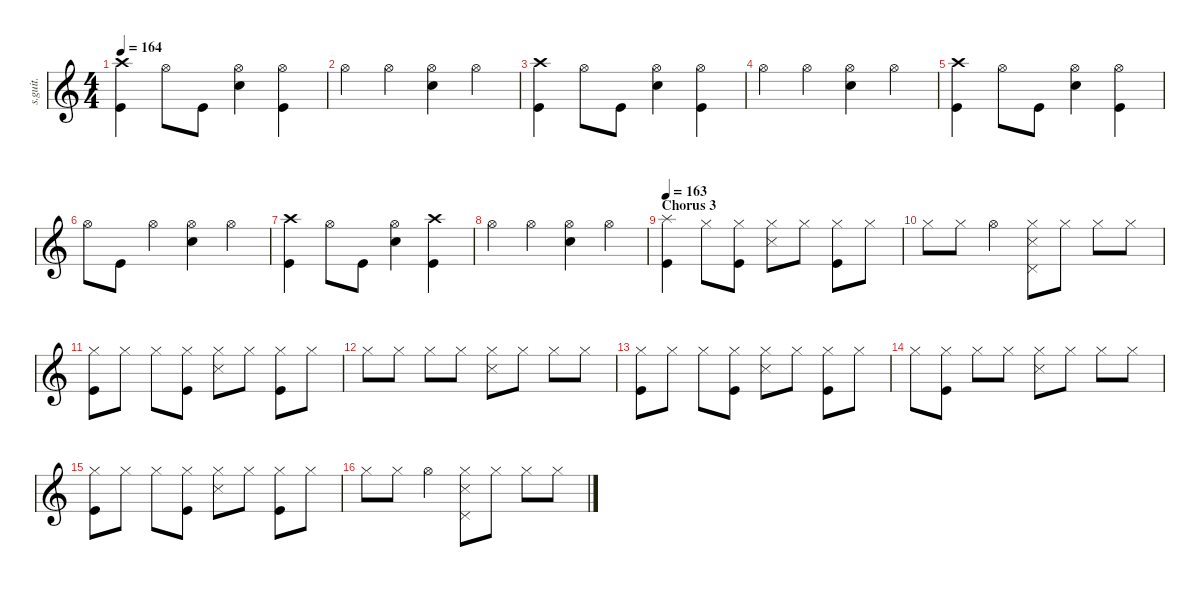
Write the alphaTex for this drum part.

\defaultSystemsLayout 4
\hideDynamics
\bracketExtendMode nobrackets
\track ("John Dolmayan" "s.guit.") {instrument percussion}
\staff {score}
\articulation defaults
\ts (4 4)
\tempo 164
\clef g2
\ks c
("Crash high (hit)" "Kick (hit)").4{lyrics (0 "") lyrics (1 "") lyrics (2 "") lyrics (3 "") lyrics (4 "") dy f} "Hi-Hat (open)".8{lyrics (0 "") lyrics (1 "") lyrics (2 "") lyrics (3 "") lyrics (4 "")} "Kick (hit)".8{lyrics (0 "") lyrics (1 "") lyrics (2 "") lyrics (3 "") lyrics (4 "")} ("Hi-Hat (open)" "Snare (hit) 2").4{lyrics (0 "") lyrics (1 "") lyrics (2 "") lyrics (3 "") lyrics (4 "")} ("Kick (hit)" "Hi-Hat (open)").4{lyrics (0 "") lyrics (1 "") lyrics (2 "") lyrics (3 "") lyrics (4 "")} |
"Hi-Hat (open)".4{lyrics (0 "") lyrics (1 "") lyrics (2 "") lyrics (3 "") lyrics (4 "")} "Hi-Hat (open)".4{lyrics (0 "") lyrics (1 "") lyrics (2 "") lyrics (3 "") lyrics (4 "")} ("Hi-Hat (open)" "Snare (hit) 2").4{lyrics (0 "") lyrics (1 "") lyrics (2 "") lyrics (3 "") lyrics (4 "")} "Hi-Hat (open)".4{lyrics (0 "") lyrics (1 "") lyrics (2 "") lyrics (3 "") lyrics (4 "")} |
("Crash high (hit)" "Kick (hit)").4{lyrics (0 "") lyrics (1 "") lyrics (2 "") lyrics (3 "") lyrics (4 "")} "Hi-Hat (open)".8{lyrics (0 "") lyrics (1 "") lyrics (2 "") lyrics (3 "") lyrics (4 "")} "Kick (hit)".8{lyrics (0 "") lyrics (1 "") lyrics (2 "") lyrics (3 "") lyrics (4 "")} ("Hi-Hat (open)" "Snare (hit) 2").4{lyrics (0 "") lyrics (1 "") lyrics (2 "") lyrics (3 "") lyrics (4 "")} ("Kick (hit)" "Hi-Hat (open)").4{lyrics (0 "") lyrics (1 "") lyrics (2 "") lyrics (3 "") lyrics (4 "")} |
"Hi-Hat (open)".4{lyrics (0 "") lyrics (1 "") lyrics (2 "") lyrics (3 "") lyrics (4 "")} "Hi-Hat (open)".4{lyrics (0 "") lyrics (1 "") lyrics (2 "") lyrics (3 "") lyrics (4 "")} ("Hi-Hat (open)" "Snare (hit) 2").4{lyrics (0 "") lyrics (1 "") lyrics (2 "") lyrics (3 "") lyrics (4 "")} "Hi-Hat (open)".4{lyrics (0 "") lyrics (1 "") lyrics (2 "") lyrics (3 "") lyrics (4 "")} |
("Crash high (hit)" "Kick (hit)").4{lyrics (0 "") lyrics (1 "") lyrics (2 "") lyrics (3 "") lyrics (4 "")} "Hi-Hat (open)".8{lyrics (0 "") lyrics (1 "") lyrics (2 "") lyrics (3 "") lyrics (4 "")} "Kick (hit)".8{lyrics (0 "") lyrics (1 "") lyrics (2 "") lyrics (3 "") lyrics (4 "")} ("Hi-Hat (open)" "Snare (hit) 2").4{lyrics (0 "") lyrics (1 "") lyrics (2 "") lyrics (3 "") lyrics (4 "")} ("Kick (hit)" "Hi-Hat (open)").4{lyrics (0 "") lyrics (1 "") lyrics (2 "") lyrics (3 "") lyrics (4 "")} |
"Hi-Hat (open)".8{lyrics (0 "") lyrics (1 "") lyrics (2 "") lyrics (3 "") lyrics (4 "")} "Kick (hit)".8{lyrics (0 "") lyrics (1 "") lyrics (2 "") lyrics (3 "") lyrics (4 "")} "Hi-Hat (open)".4{lyrics (0 "") lyrics (1 "") lyrics (2 "") lyrics (3 "") lyrics (4 "")} ("Hi-Hat (open)" "Snare (hit) 2").4{lyrics (0 "") lyrics (1 "") lyrics (2 "") lyrics (3 "") lyrics (4 "")} "Hi-Hat (open)".4{lyrics (0 "") lyrics (1 "") lyrics (2 "") lyrics (3 "") lyrics (4 "")} |
("Crash high (hit)" "Kick (hit)").4{lyrics (0 "") lyrics (1 "") lyrics (2 "") lyrics (3 "") lyrics (4 "")} "Hi-Hat (open)".8{lyrics (0 "") lyrics (1 "") lyrics (2 "") lyrics (3 "") lyrics (4 "")} "Kick (hit)".8{lyrics (0 "") lyrics (1 "") lyrics (2 "") lyrics (3 "") lyrics (4 "")} ("Hi-Hat (open)" "Snare (hit) 2").4{lyrics (0 "") lyrics (1 "") lyrics (2 "") lyrics (3 "") lyrics (4 "")} ("Kick (hit)" "Crash high (hit)").4{lyrics (0 "") lyrics (1 "") lyrics (2 "") lyrics (3 "") lyrics (4 "")} |
"Hi-Hat (open)".4{lyrics (0 "") lyrics (1 "") lyrics (2 "") lyrics (3 "") lyrics (4 "")} "Hi-Hat (open)".4{lyrics (0 "") lyrics (1 "") lyrics (2 "") lyrics (3 "") lyrics (4 "")} ("Hi-Hat (open)" "Snare (hit) 2").4{lyrics (0 "") lyrics (1 "") lyrics (2 "") lyrics (3 "") lyrics (4 "")} "Hi-Hat (open)".4{lyrics (0 "") lyrics (1 "") lyrics (2 "") lyrics (3 "") lyrics (4 "")} |
\section ("" "Chorus 3")
\tempo 163
("Splash (hit)" "Kick (hit)").4{lyrics (0 "") lyrics (1 "") lyrics (2 "") lyrics (3 "") lyrics (4 "")} "Hi-Hat (closed)".8{lyrics (0 "") lyrics (1 "") lyrics (2 "") lyrics (3 "") lyrics (4 "")} ("Hi-Hat (closed)" "Kick (hit)").8{lyrics (0 "") lyrics (1 "") lyrics (2 "") lyrics (3 "") lyrics (4 "")} ("Hi-Hat (closed)" "Snare (side stick) 3").8{lyrics (0 "") lyrics (1 "") lyrics (2 "") lyrics (3 "") lyrics (4 "")} "Hi-Hat (closed)".8{lyrics (0 "") lyrics (1 "") lyrics (2 "") lyrics (3 "") lyrics (4 "")} ("Hi-Hat (closed)" "Kick (hit)").8{lyrics (0 "") lyrics (1 "") lyrics (2 "") lyrics (3 "") lyrics (4 "")} "Hi-Hat (closed)".8{lyrics (0 "") lyrics (1 "") lyrics (2 "") lyrics (3 "") lyrics (4 "")} |
"Hi-Hat (closed)".8{lyrics (0 "") lyrics (1 "") lyrics (2 "") lyrics (3 "") lyrics (4 "")} "Hi-Hat (closed)".8{lyrics (0 "") lyrics (1 "") lyrics (2 "") lyrics (3 "") lyrics (4 "")} "Hi-Hat (open)".4{lyrics (0 "") lyrics (1 "") lyrics (2 "") lyrics (3 "") lyrics (4 "")} ("Hi-Hat (closed)" "Pedal Hi-Hat (hit)" "Snare (side stick) 3").8{lyrics (0 "") lyrics (1 "") lyrics (2 "") lyrics (3 "") lyrics (4 "")} "Hi-Hat (closed)".8{lyrics (0 "") lyrics (1 "") lyrics (2 "") lyrics (3 "") lyrics (4 "")} "Hi-Hat (closed)".8{lyrics (0 "") lyrics (1 "") lyrics (2 "") lyrics (3 "") lyrics (4 "")} "Hi-Hat (closed)".8{lyrics (0 "") lyrics (1 "") lyrics (2 "") lyrics (3 "") lyrics (4 "")} |
("Hi-Hat (closed)" "Kick (hit)").8{lyrics (0 "") lyrics (1 "") lyrics (2 "") lyrics (3 "") lyrics (4 "")} "Hi-Hat (closed)".8{lyrics (0 "") lyrics (1 "") lyrics (2 "") lyrics (3 "") lyrics (4 "")} "Hi-Hat (closed)".8{lyrics (0 "") lyrics (1 "") lyrics (2 "") lyrics (3 "") lyrics (4 "")} ("Hi-Hat (closed)" "Kick (hit)").8{lyrics (0 "") lyrics (1 "") lyrics (2 "") lyrics (3 "") lyrics (4 "")} ("Hi-Hat (closed)" "Snare (side stick) 3").8{lyrics (0 "") lyrics (1 "") lyrics (2 "") lyrics (3 "") lyrics (4 "")} "Hi-Hat (closed)".8{lyrics (0 "") lyrics (1 "") lyrics (2 "") lyrics (3 "") lyrics (4 "")} ("Hi-Hat (closed)" "Kick (hit)").8{lyrics (0 "") lyrics (1 "") lyrics (2 "") lyrics (3 "") lyrics (4 "")} "Hi-Hat (closed)".8{lyrics (0 "") lyrics (1 "") lyrics (2 "") lyrics (3 "") lyrics (4 "")} |
"Hi-Hat (closed)".8{lyrics (0 "") lyrics (1 "") lyrics (2 "") lyrics (3 "") lyrics (4 "")} "Hi-Hat (closed)".8{lyrics (0 "") lyrics (1 "") lyrics (2 "") lyrics (3 "") lyrics (4 "")} "Hi-Hat (closed)".8{lyrics (0 "") lyrics (1 "") lyrics (2 "") lyrics (3 "") lyrics (4 "")} "Hi-Hat (closed)".8{lyrics (0 "") lyrics (1 "") lyrics (2 "") lyrics (3 "") lyrics (4 "")} ("Hi-Hat (closed)" "Snare (side stick) 3").8{lyrics (0 "") lyrics (1 "") lyrics (2 "") lyrics (3 "") lyrics (4 "")} "Hi-Hat (closed)".8{lyrics (0 "") lyrics (1 "") lyrics (2 "") lyrics (3 "") lyrics (4 "")} "Hi-Hat (closed)".8{lyrics (0 "") lyrics (1 "") lyrics (2 "") lyrics (3 "") lyrics (4 "")} "Hi-Hat (closed)".8{lyrics (0 "") lyrics (1 "") lyrics (2 "") lyrics (3 "") lyrics (4 "")} |
("Hi-Hat (closed)" "Kick (hit)").8{lyrics (0 "") lyrics (1 "") lyrics (2 "") lyrics (3 "") lyrics (4 "")} "Hi-Hat (closed)".8{lyrics (0 "") lyrics (1 "") lyrics (2 "") lyrics (3 "") lyrics (4 "")} "Hi-Hat (closed)".8{lyrics (0 "") lyrics (1 "") lyrics (2 "") lyrics (3 "") lyrics (4 "")} ("Hi-Hat (closed)" "Kick (hit)").8{lyrics (0 "") lyrics (1 "") lyrics (2 "") lyrics (3 "") lyrics (4 "")} ("Hi-Hat (closed)" "Snare (side stick) 3").8{lyrics (0 "") lyrics (1 "") lyrics (2 "") lyrics (3 "") lyrics (4 "")} "Hi-Hat (closed)".8{lyrics (0 "") lyrics (1 "") lyrics (2 "") lyrics (3 "") lyrics (4 "")} ("Hi-Hat (closed)" "Kick (hit)").8{lyrics (0 "") lyrics (1 "") lyrics (2 "") lyrics (3 "") lyrics (4 "")} "Hi-Hat (closed)".8{lyrics (0 "") lyrics (1 "") lyrics (2 "") lyrics (3 "") lyrics (4 "")} |
"Hi-Hat (closed)".8{lyrics (0 "") lyrics (1 "") lyrics (2 "") lyrics (3 "") lyrics (4 "")} ("Hi-Hat (closed)" "Kick (hit)").8{lyrics (0 "") lyrics (1 "") lyrics (2 "") lyrics (3 "") lyrics (4 "")} "Hi-Hat (closed)".8{lyrics (0 "") lyrics (1 "") lyrics (2 "") lyrics (3 "") lyrics (4 "")} "Hi-Hat (closed)".8{lyrics (0 "") lyrics (1 "") lyrics (2 "") lyrics (3 "") lyrics (4 "")} ("Hi-Hat (closed)" "Snare (side stick) 3").8{lyrics (0 "") lyrics (1 "") lyrics (2 "") lyrics (3 "") lyrics (4 "")} "Hi-Hat (closed)".8{lyrics (0 "") lyrics (1 "") lyrics (2 "") lyrics (3 "") lyrics (4 "")} "Hi-Hat (closed)".8{lyrics (0 "") lyrics (1 "") lyrics (2 "") lyrics (3 "") lyrics (4 "")} "Hi-Hat (closed)".8{lyrics (0 "") lyrics (1 "") lyrics (2 "") lyrics (3 "") lyrics (4 "")} |
("Hi-Hat (closed)" "Kick (hit)").8{lyrics (0 "") lyrics (1 "") lyrics (2 "") lyrics (3 "") lyrics (4 "")} "Hi-Hat (closed)".8{lyrics (0 "") lyrics (1 "") lyrics (2 "") lyrics (3 "") lyrics (4 "")} "Hi-Hat (closed)".8{lyrics (0 "") lyrics (1 "") lyrics (2 "") lyrics (3 "") lyrics (4 "")} ("Hi-Hat (closed)" "Kick (hit)").8{lyrics (0 "") lyrics (1 "") lyrics (2 "") lyrics (3 "") lyrics (4 "")} ("Hi-Hat (closed)" "Snare (side stick) 3").8{lyrics (0 "") lyrics (1 "") lyrics (2 "") lyrics (3 "") lyrics (4 "")} "Hi-Hat (closed)".8{lyrics (0 "") lyrics (1 "") lyrics (2 "") lyrics (3 "") lyrics (4 "")} ("Hi-Hat (closed)" "Kick (hit)").8{lyrics (0 "") lyrics (1 "") lyrics (2 "") lyrics (3 "") lyrics (4 "")} "Hi-Hat (closed)".8{lyrics (0 "") lyrics (1 "") lyrics (2 "") lyrics (3 "") lyrics (4 "")} |
"Hi-Hat (closed)".8{lyrics (0 "") lyrics (1 "") lyrics (2 "") lyrics (3 "") lyrics (4 "")} "Hi-Hat (closed)".8{lyrics (0 "") lyrics (1 "") lyrics (2 "") lyrics (3 "") lyrics (4 "")} "Hi-Hat (open)".4{lyrics (0 "") lyrics (1 "") lyrics (2 "") lyrics (3 "") lyrics (4 "")} ("Hi-Hat (closed)" "Pedal Hi-Hat (hit)" "Snare (side stick) 3").8{lyrics (0 "") lyrics (1 "") lyrics (2 "") lyrics (3 "") lyrics (4 "")} "Hi-Hat (closed)".8{lyrics (0 "") lyrics (1 "") lyrics (2 "") lyrics (3 "") lyrics (4 "")} "Hi-Hat (closed)".8{lyrics (0 "") lyrics (1 "") lyrics (2 "") lyrics (3 "") lyrics (4 "")} "Hi-Hat (closed)".8{lyrics (0 "") lyrics (1 "") lyrics (2 "") lyrics (3 "") lyrics (4 "")}
